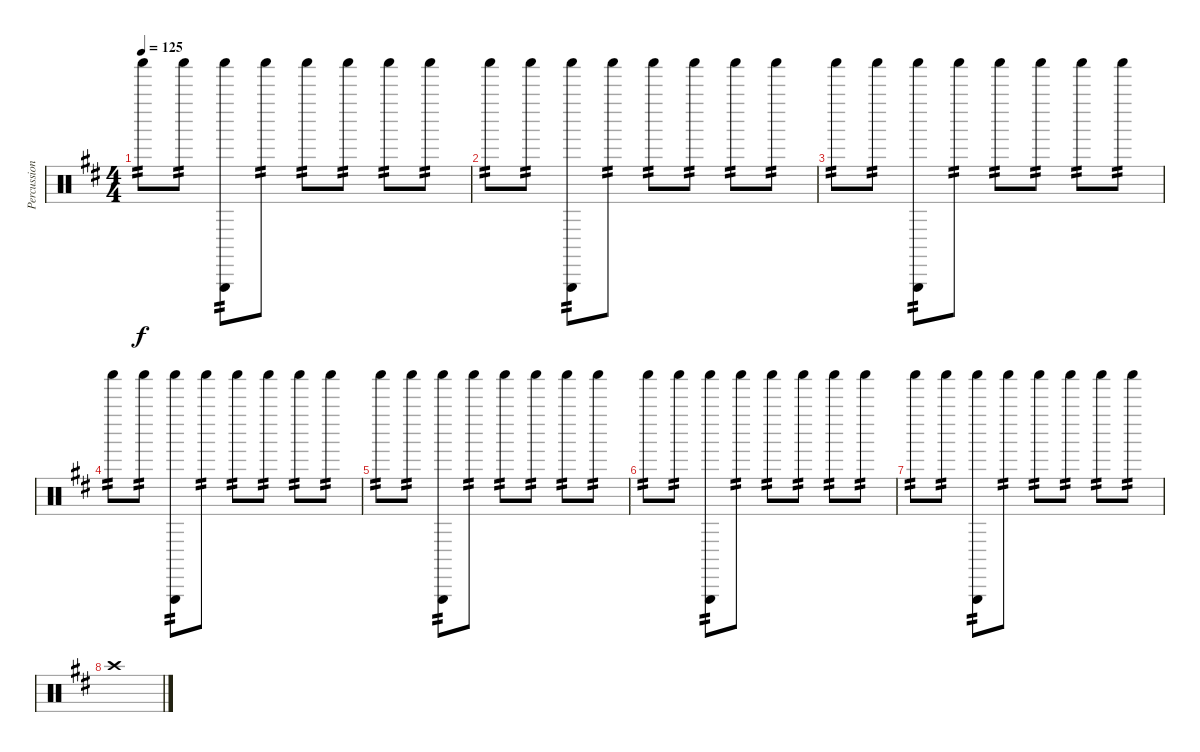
\track ("Percussion" "Percussion") {instrument percussion}
\staff {score}
\articulation defaults
\ts (4 4)
\tempo 125
\clef neutral
\ks d "Shaker (hit)".8{tp 2 dy f} "Shaker (hit)".8{tp 2}
("Shaker (hit)" "Triangle (hit)").8{tp 2} "Shaker (hit)".8{tp 2} "Shaker (hit)".8{tp 2} "Shaker (hit)".8{tp 2} "Shaker (hit)".8{tp 2} "Shaker (hit)".8{tp 2} |
"Shaker (hit)".8{tp 2} "Shaker (hit)".8{tp 2} ("Shaker (hit)" "Triangle (hit)").8{tp 2} "Shaker (hit)".8{tp 2} "Shaker (hit)".8{tp 2} "Shaker (hit)".8{tp 2} "Shaker (hit)".8{tp 2} "Shaker (hit)".8{tp 2} |
"Shaker (hit)".8{tp 2} "Shaker (hit)".8{tp 2} ("Shaker (hit)" "Triangle (hit)").8{tp 2} "Shaker (hit)".8{tp 2} "Shaker (hit)".8{tp 2} "Shaker (hit)".8{tp 2} "Shaker (hit)".8{tp 2} "Shaker (hit)".8{tp 2} |
"Shaker (hit)".8{tp 2} "Shaker (hit)".8{tp 2} ("Shaker (hit)" "Triangle (hit)").8{tp 2} "Shaker (hit)".8{tp 2} "Shaker (hit)".8{tp 2} "Shaker (hit)".8{tp 2} "Shaker (hit)".8{tp 2} "Shaker (hit)".8{tp 2} |
"Shaker (hit)".8{tp 2} "Shaker (hit)".8{tp 2} ("Shaker (hit)" "Triangle (hit)").8{tp 2} "Shaker (hit)".8{tp 2} "Shaker (hit)".8{tp 2} "Shaker (hit)".8{tp 2} "Shaker (hit)".8{tp 2} "Shaker (hit)".8{tp 2} |
"Shaker (hit)".8{tp 2} "Shaker (hit)".8{tp 2} ("Shaker (hit)" "Triangle (hit)").8{tp 2} "Shaker (hit)".8{tp 2} "Shaker (hit)".8{tp 2} "Shaker (hit)".8{tp 2} "Shaker (hit)".8{tp 2} "Shaker (hit)".8{tp 2} |
"Shaker (hit)".8{tp 2} "Shaker (hit)".8{tp 2} ("Shaker (hit)" "Triangle (hit)").8{tp 2} "Shaker (hit)".8{tp 2} "Shaker (hit)".8{tp 2} "Shaker (hit)".8{tp 2} "Shaker (hit)".8{tp 2} "Shaker (hit)".8{tp 2} |
"Crash high (hit)".1
